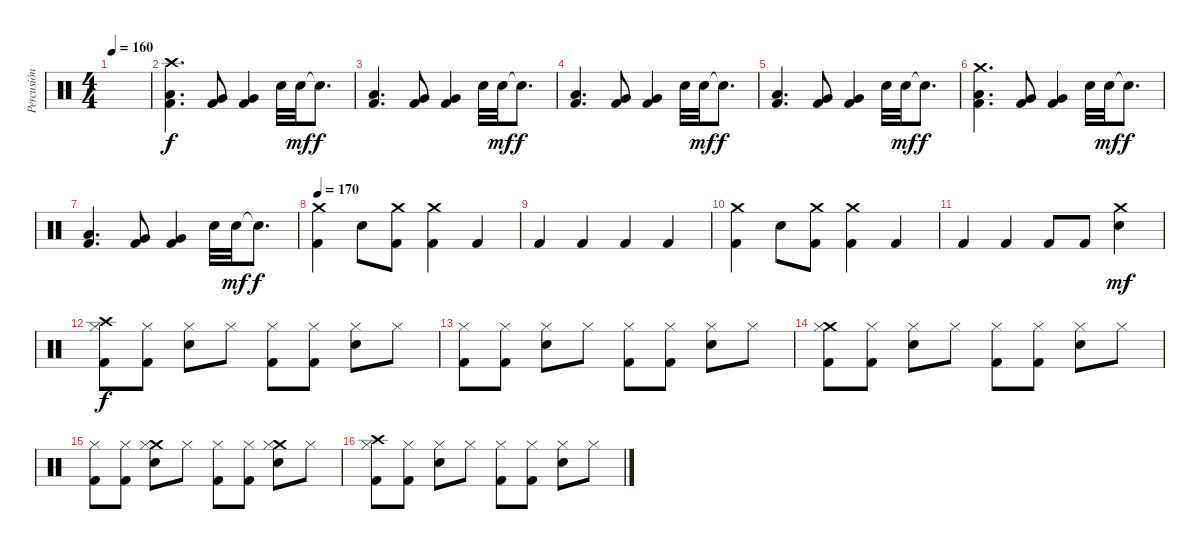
\track ("Percusión" "Percusión") {instrument percussion}
\staff {score}
\articulation defaults
\ts (4 4)
\tempo 160
\clef neutral
\ks c
|
("Crash high (hit)" "Low Floor Tom (hit)" "Kick (hit) 2").4{d} ("Very Low Tom (hit)" "Kick (hit) 2").8 ("Very Low Tom (hit)" "Kick (hit) 2").4 "Electric Snare (hit)".32 "Electric Snare (hit)".32{dy mf} "Snare (hit)"{t}.8{d dy f} |
("Low Floor Tom (hit)" "Kick (hit) 2").4{d} ("Very Low Tom (hit)" "Kick (hit) 2").8 ("Very Low Tom (hit)" "Kick (hit) 2").4 "Electric Snare (hit)".32 "Electric Snare (hit)".32{dy mf} "Snare (hit)"{t}.8{d dy f} |
("Low Floor Tom (hit)" "Kick (hit) 2").4{d} ("Very Low Tom (hit)" "Kick (hit) 2").8 ("Very Low Tom (hit)" "Kick (hit) 2").4 "Electric Snare (hit)".32 "Electric Snare (hit)".32{dy mf} "Snare (hit)"{t}.8{d dy f} |
("Low Floor Tom (hit)" "Kick (hit) 2").4{d} ("Very Low Tom (hit)" "Kick (hit) 2").8 ("Very Low Tom (hit)" "Kick (hit) 2").4 "Electric Snare (hit)".32 "Electric Snare (hit)".32{dy mf} "Snare (hit)"{t}.8{d dy f} |
("Crash medium (hit)" "Low Floor Tom (hit)" "Kick (hit) 2").4{d} ("Very Low Tom (hit)" "Kick (hit) 2").8 ("Very Low Tom (hit)" "Kick (hit) 2").4 "Electric Snare (hit)".32 "Electric Snare (hit)".32{dy mf} "Snare (hit)"{t}.8{d dy f} |
("Low Floor Tom (hit)" "Kick (hit) 2").4{d} ("Very Low Tom (hit)" "Kick (hit) 2").8 ("Very Low Tom (hit)" "Kick (hit) 2").4 "Electric Snare (hit)".32 "Electric Snare (hit)".32{dy mf} "Snare (hit)"{t}.8{d dy f} |
\tempo 170
("Crash medium (hit)" "Kick (hit) 2").4 "Electric Snare (hit)".8 ("Crash medium (hit)" "Kick (hit) 2").8 ("Crash medium (hit)" "Kick (hit) 2").4 "Kick (hit) 2".4 |
"Kick (hit) 2".4 "Kick (hit) 2".4 "Kick (hit) 2".4 "Kick (hit) 2".4 |
("Crash medium (hit)" "Kick (hit) 2").4 "Electric Snare (hit)".8 ("Crash medium (hit)" "Kick (hit) 2").8 ("Crash medium (hit)" "Kick (hit) 2").4 "Kick (hit) 2".4 |
"Kick (hit) 2".4 "Kick (hit) 2".4 "Kick (hit) 2".8 "Kick (hit) 2".8 ("Crash medium (hit)" "Electric Snare (hit)").4{dy mf} |
("Crash high (hit)" "Hi-Hat (closed)" "Kick (hit) 2").8{dy f} ("Hi-Hat (closed)" "Kick (hit) 2").8 ("Hi-Hat (closed)" "Electric Snare (hit)").8 "Hi-Hat (closed)".8 ("Hi-Hat (closed)" "Kick (hit) 2").8 ("Hi-Hat (closed)" "Kick (hit) 2").8 ("Hi-Hat (closed)" "Electric Snare (hit)").8 "Hi-Hat (closed)".8 |
("Hi-Hat (closed)" "Kick (hit) 2").8 ("Hi-Hat (closed)" "Kick (hit) 2").8 ("Hi-Hat (closed)" "Electric Snare (hit)").8 "Hi-Hat (closed)".8 ("Hi-Hat (closed)" "Kick (hit) 2").8 ("Hi-Hat (closed)" "Kick (hit) 2").8 ("Hi-Hat (closed)" "Electric Snare (hit)").8 "Hi-Hat (closed)".8 |
("Crash medium (hit)" "Hi-Hat (closed)" "Kick (hit) 2").8 ("Hi-Hat (closed)" "Kick (hit) 2").8 ("Hi-Hat (closed)" "Electric Snare (hit)").8 "Hi-Hat (closed)".8 ("Hi-Hat (closed)" "Kick (hit) 2").8 ("Hi-Hat (closed)" "Kick (hit) 2").8 ("Hi-Hat (closed)" "Electric Snare (hit)").8 "Hi-Hat (closed)".8 |
("Hi-Hat (closed)" "Kick (hit) 2").8 ("Hi-Hat (closed)" "Kick (hit) 2").8 ("Crash medium (hit)" "Hi-Hat (closed)" "Electric Snare (hit)").8 "Hi-Hat (closed)".8 ("Hi-Hat (closed)" "Kick (hit) 2").8 ("Hi-Hat (closed)" "Kick (hit) 2").8 ("Crash medium (hit)" "Hi-Hat (closed)" "Electric Snare (hit)").8 "Hi-Hat (closed)".8 |
("Crash high (hit)" "Hi-Hat (closed)" "Kick (hit) 2").8 ("Hi-Hat (closed)" "Kick (hit) 2").8 ("Hi-Hat (closed)" "Electric Snare (hit)").8 "Hi-Hat (closed)".8 ("Hi-Hat (closed)" "Kick (hit) 2").8 ("Hi-Hat (closed)" "Kick (hit) 2").8 ("Hi-Hat (closed)" "Electric Snare (hit)").8 "Hi-Hat (closed)".8
